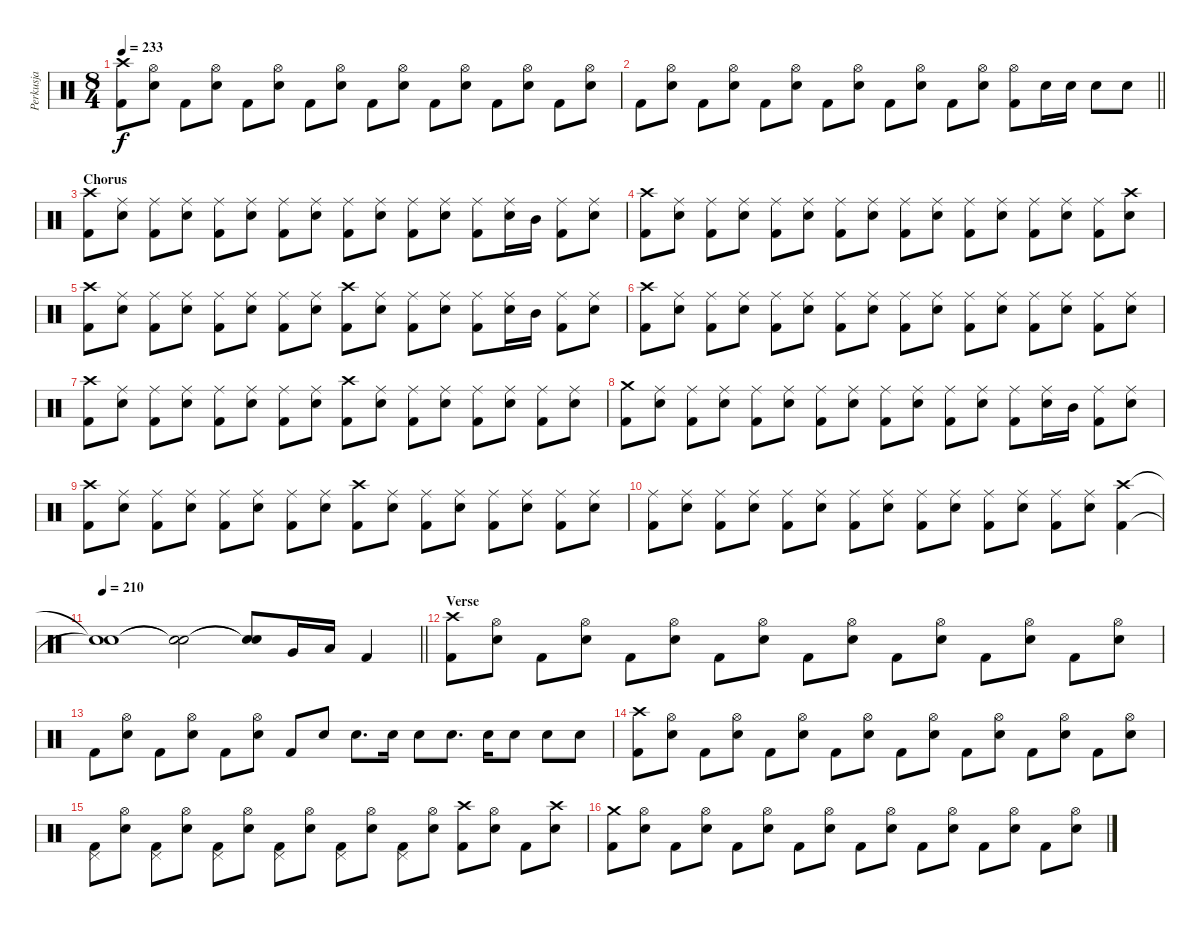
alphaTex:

\track ("Perkusja" "Perkusja") {instrument percussion}
\staff {score}
\articulation defaults
\ts (8 4)
\tempo 233
\clef neutral
\ks c
("Crash high (hit)" "Kick (hit) 2").8{dy f} ("Hi-Hat (open)" "Snare (hit) 2").8 "Kick (hit) 2".8 ("Hi-Hat (open)" "Snare (hit) 2").8 "Kick (hit) 2".8 ("Hi-Hat (open)" "Snare (hit) 2").8 "Kick (hit) 2".8 ("Hi-Hat (open)" "Snare (hit) 2").8 "Kick (hit) 2".8 ("Hi-Hat (open)" "Snare (hit) 2").8 "Kick (hit) 2".8 ("Hi-Hat (open)" "Snare (hit) 2").8 "Kick (hit) 2".8 ("Hi-Hat (open)" "Snare (hit) 2").8 "Kick (hit) 2".8 ("Hi-Hat (open)" "Snare (hit) 2").8 |
\barLineRight lightlight "Kick (hit) 2".8
("Hi-Hat (open)" "Snare (hit) 2").8 "Kick (hit) 2".8 ("Hi-Hat (open)" "Snare (hit) 2").8 "Kick (hit) 2".8 ("Hi-Hat (open)" "Snare (hit) 2").8 "Kick (hit) 2".8 ("Hi-Hat (open)" "Snare (hit) 2").8 "Kick (hit) 2".8 ("Hi-Hat (open)" "Snare (hit) 2").8 "Kick (hit) 2".8 ("Hi-Hat (open)" "Snare (hit) 2").8 ("Hi-Hat (open)" "Kick (hit) 2").8 "Snare (hit) 2".16 "Snare (hit) 2".16 "Snare (hit) 2".8 "Snare (hit) 2".8 |
\section ("" "Chorus")
("Crash high (hit)" "Kick (hit) 2").8 ("Ride (middle)" "Snare (hit) 2").8 ("Ride (middle)" "Kick (hit) 2").8 ("Ride (middle)" "Snare (hit) 2").8 ("Ride (middle)" "Kick (hit) 2").8 ("Ride (middle)" "Snare (hit) 2").8 ("Ride (middle)" "Kick (hit) 2").8 ("Ride (middle)" "Snare (hit) 2").8 ("Ride (middle)" "Kick (hit) 2").8 ("Ride (middle)" "Snare (hit) 2").8 ("Ride (middle)" "Kick (hit) 2").8 ("Ride (middle)" "Snare (hit) 2").8 ("Ride (middle)" "Kick (hit) 2").8 ("Ride (middle)" "Snare (hit) 2").16 "Mid Tom (hit)".16 ("Ride (middle)" "Kick (hit) 2").8 ("Ride (middle)" "Snare (hit) 2").8 |
("Crash high (hit)" "Kick (hit) 2").8 ("Ride (middle)" "Snare (hit) 2").8 ("Ride (middle)" "Kick (hit) 2").8 ("Ride (middle)" "Snare (hit) 2").8 ("Ride (middle)" "Kick (hit) 2").8 ("Ride (middle)" "Snare (hit) 2").8 ("Ride (middle)" "Kick (hit) 2").8 ("Ride (middle)" "Snare (hit) 2").8 ("Ride (middle)" "Kick (hit) 2").8 ("Ride (middle)" "Snare (hit) 2").8 ("Ride (middle)" "Kick (hit) 2").8 ("Ride (middle)" "Snare (hit) 2").8 ("Ride (middle)" "Kick (hit) 2").8 ("Ride (middle)" "Snare (hit) 2").8 ("Ride (middle)" "Kick (hit) 2").8 ("Crash high (hit)" "Snare (hit) 2").8 |
("Crash high (hit)" "Kick (hit) 2").8 ("Ride (middle)" "Snare (hit) 2").8 ("Ride (middle)" "Kick (hit) 2").8 ("Ride (middle)" "Snare (hit) 2").8 ("Ride (middle)" "Kick (hit) 2").8 ("Ride (middle)" "Snare (hit) 2").8 ("Ride (middle)" "Kick (hit) 2").8 ("Ride (middle)" "Snare (hit) 2").8 ("Crash high (hit)" "Kick (hit) 2").8 ("Ride (middle)" "Snare (hit) 2").8 ("Ride (middle)" "Kick (hit) 2").8 ("Ride (middle)" "Snare (hit) 2").8 ("Ride (middle)" "Kick (hit) 2").8 ("Ride (middle)" "Snare (hit) 2").16 "Mid Tom (hit)".16 ("Ride (middle)" "Kick (hit) 2").8 ("Ride (middle)" "Snare (hit) 2").8 |
("Crash high (hit)" "Kick (hit) 2").8 ("Ride (middle)" "Snare (hit) 2").8 ("Ride (middle)" "Kick (hit) 2").8 ("Ride (middle)" "Snare (hit) 2").8 ("Ride (middle)" "Kick (hit) 2").8 ("Ride (middle)" "Snare (hit) 2").8 ("Ride (middle)" "Kick (hit) 2").8 ("Ride (middle)" "Snare (hit) 2").8 ("Ride (middle)" "Kick (hit) 2").8 ("Ride (middle)" "Snare (hit) 2").8 ("Ride (middle)" "Kick (hit) 2").8 ("Ride (middle)" "Snare (hit) 2").8 ("Ride (middle)" "Kick (hit) 2").8 ("Ride (middle)" "Snare (hit) 2").8 ("Ride (middle)" "Kick (hit) 2").8 ("Ride (middle)" "Snare (hit) 2").8 |
("Crash high (hit)" "Kick (hit) 2").8 ("Ride (middle)" "Snare (hit) 2").8 ("Ride (middle)" "Kick (hit) 2").8 ("Ride (middle)" "Snare (hit) 2").8 ("Ride (middle)" "Kick (hit) 2").8 ("Ride (middle)" "Snare (hit) 2").8 ("Ride (middle)" "Kick (hit) 2").8 ("Ride (middle)" "Snare (hit) 2").8 ("Crash high (hit)" "Kick (hit) 2").8 ("Ride (middle)" "Snare (hit) 2").8 ("Ride (middle)" "Kick (hit) 2").8 ("Ride (middle)" "Snare (hit) 2").8 ("Ride (middle)" "Kick (hit) 2").8 ("Ride (middle)" "Snare (hit) 2").8 ("Ride (middle)" "Kick (hit) 2").8 ("Ride (middle)" "Snare (hit) 2").8 |
("Crash medium (hit)" "Kick (hit) 2").8 ("Ride (middle)" "Snare (hit) 2").8 ("Ride (middle)" "Kick (hit) 2").8 ("Ride (middle)" "Snare (hit) 2").8 ("Ride (middle)" "Kick (hit) 2").8 ("Ride (middle)" "Snare (hit) 2").8 ("Ride (middle)" "Kick (hit) 2").8 ("Ride (middle)" "Snare (hit) 2").8 ("Ride (middle)" "Kick (hit) 2").8 ("Ride (middle)" "Snare (hit) 2").8 ("Ride (middle)" "Kick (hit) 2").8 ("Ride (middle)" "Snare (hit) 2").8 ("Ride (middle)" "Kick (hit) 2").8 ("Ride (middle)" "Snare (hit) 2").16 "Mid Tom (hit)".16 ("Ride (middle)" "Kick (hit) 2").8 ("Ride (middle)" "Snare (hit) 2").8 |
("Crash high (hit)" "Kick (hit) 2").8 ("Ride (middle)" "Snare (hit) 2").8 ("Ride (middle)" "Kick (hit) 2").8 ("Ride (middle)" "Snare (hit) 2").8 ("Ride (middle)" "Kick (hit) 2").8 ("Ride (middle)" "Snare (hit) 2").8 ("Ride (middle)" "Kick (hit) 2").8 ("Ride (middle)" "Snare (hit) 2").8 ("Crash high (hit)" "Kick (hit) 2").8 ("Ride (middle)" "Snare (hit) 2").8 ("Ride (middle)" "Kick (hit) 2").8 ("Ride (middle)" "Snare (hit) 2").8 ("Ride (middle)" "Kick (hit) 2").8 ("Ride (middle)" "Snare (hit) 2").8 ("Ride (middle)" "Kick (hit) 2").8 ("Ride (middle)" "Snare (hit) 2").8 |
("Ride (middle)" "Kick (hit) 2").8 ("Ride (middle)" "Snare (hit) 2").8 ("Ride (middle)" "Kick (hit) 2").8 ("Ride (middle)" "Snare (hit) 2").8 ("Ride (middle)" "Kick (hit) 2").8 ("Ride (middle)" "Snare (hit) 2").8 ("Ride (middle)" "Kick (hit) 2").8 ("Ride (middle)" "Snare (hit) 2").8 ("Ride (middle)" "Kick (hit) 2").8 ("Ride (middle)" "Snare (hit) 2").8 ("Ride (middle)" "Kick (hit) 2").8 ("Ride (middle)" "Snare (hit) 2").8 ("Ride (middle)" "Kick (hit) 2").8 ("Ride (middle)" "Snare (hit) 2").8 ("Crash high (hit)" "Kick (hit) 2").4 |
\tempo 210
\barLineRight lightlight
("Snare (hit)"{t} "Snare (hit)"{t}).1 ("Snare (hit)"{t} "Snare (hit)"{t}).2 ("Snare (hit)"{t} "Snare (hit)"{t}).8 "Very Low Tom (hit)".16 "Low Floor Tom (hit)".16 "Kick (hit) 2".4 |
\section ("" "Verse")
("Crash high (hit)" "Kick (hit) 2").8 ("Hi-Hat (open)" "Snare (hit) 2").8 "Kick (hit) 2".8 ("Hi-Hat (open)" "Snare (hit) 2").8 "Kick (hit) 2".8 ("Hi-Hat (open)" "Snare (hit) 2").8 "Kick (hit) 2".8 ("Hi-Hat (open)" "Snare (hit) 2").8 "Kick (hit) 2".8 ("Hi-Hat (open)" "Snare (hit) 2").8 "Kick (hit) 2".8 ("Hi-Hat (open)" "Snare (hit) 2").8 "Kick (hit) 2".8 ("Hi-Hat (open)" "Snare (hit) 2").8 "Kick (hit) 2".8 ("Hi-Hat (open)" "Snare (hit) 2").8 |
"Kick (hit) 2".8 ("Hi-Hat (open)" "Snare (hit) 2").8 "Kick (hit) 2".8 ("Hi-Hat (open)" "Snare (hit) 2").8 "Kick (hit) 2".8 ("Hi-Hat (open)" "Snare (hit) 2").8 "Kick (hit) 2".8 "Snare (hit) 2".8 "Snare (hit) 2".8{d} "Snare (hit) 2".16 "Snare (hit) 2".8 "Snare (hit) 2".8{d} "Snare (hit) 2".16 "Snare (hit) 2".8 "Snare (hit) 2".8 "Snare (hit) 2".8 |
("Crash high (hit)" "Kick (hit) 2").8 ("Hi-Hat (open)" "Snare (hit) 2").8 "Kick (hit) 2".8 ("Hi-Hat (open)" "Snare (hit) 2").8 "Kick (hit) 2".8 ("Hi-Hat (open)" "Snare (hit) 2").8 "Kick (hit) 2".8 ("Hi-Hat (open)" "Snare (hit) 2").8 "Kick (hit) 2".8 ("Hi-Hat (open)" "Snare (hit) 2").8 "Kick (hit) 2".8 ("Hi-Hat (open)" "Snare (hit) 2").8 "Kick (hit) 2".8 ("Hi-Hat (open)" "Snare (hit) 2").8 "Kick (hit) 2".8 ("Hi-Hat (open)" "Snare (hit) 2").8 |
("Pedal Hi-Hat (hit)" "Kick (hit) 2").8 ("Hi-Hat (open)" "Snare (hit) 2").8 ("Pedal Hi-Hat (hit)" "Kick (hit) 2").8 ("Hi-Hat (open)" "Snare (hit) 2").8 ("Pedal Hi-Hat (hit)" "Kick (hit) 2").8 ("Hi-Hat (open)" "Snare (hit) 2").8 ("Pedal Hi-Hat (hit)" "Kick (hit) 2").8 ("Hi-Hat (open)" "Snare (hit) 2").8 ("Pedal Hi-Hat (hit)" "Kick (hit) 2").8 ("Hi-Hat (open)" "Snare (hit) 2").8 ("Pedal Hi-Hat (hit)" "Kick (hit) 2").8 ("Hi-Hat (open)" "Snare (hit) 2").8 ("Crash high (hit)" "Kick (hit) 2").8 ("Hi-Hat (open)" "Snare (hit) 2").8 "Kick (hit) 2".8 ("Crash high (hit)" "Snare (hit) 2").8 |
("Crash medium (hit)" "Kick (hit) 2").8 ("Hi-Hat (open)" "Snare (hit) 2").8 "Kick (hit) 2".8 ("Hi-Hat (open)" "Snare (hit) 2").8 "Kick (hit) 2".8 ("Hi-Hat (open)" "Snare (hit) 2").8 "Kick (hit) 2".8 ("Hi-Hat (open)" "Snare (hit) 2").8 "Kick (hit) 2".8 ("Hi-Hat (open)" "Snare (hit) 2").8 "Kick (hit) 2".8 ("Hi-Hat (open)" "Snare (hit) 2").8 "Kick (hit) 2".8 ("Hi-Hat (open)" "Snare (hit) 2").8 "Kick (hit) 2".8 ("Hi-Hat (open)" "Snare (hit) 2").8
